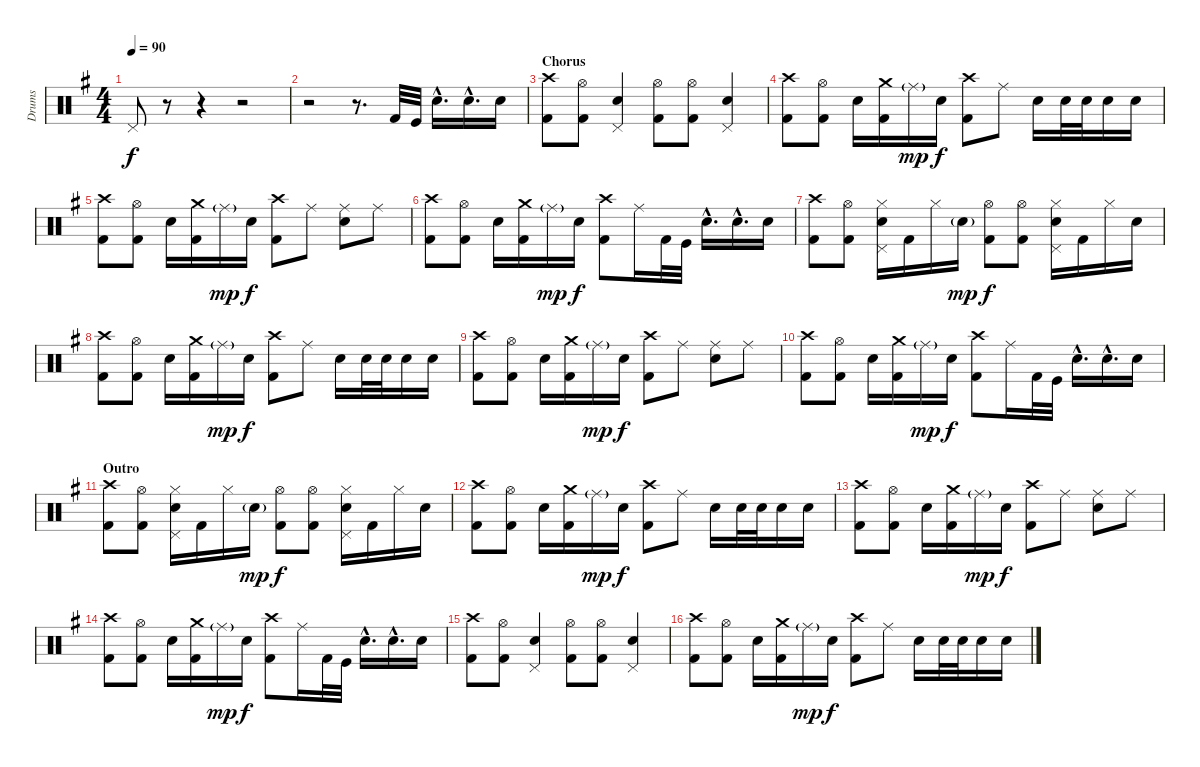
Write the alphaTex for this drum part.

\track ("Drums" "Drums") {instrument percussion}
\staff {score}
\articulation defaults
\ts (4 4)
\tempo 90
\clef neutral
\ks g "Pedal Hi-Hat (hit)".8{dy f}
r.8 r.4 r.2 |
r.2 r.8{d} "Kick (hit) 2".32 "Kick (hit)".32 "Electric Snare (hit)"{hac}.16{d} "Electric Snare (hit)"{hac}.16{d} "Electric Snare (hit)".16 |
\section ("" "Chorus")
("Crash high (hit)" "Kick (hit) 2").8{volume 13} ("Hi-Hat (open)" "Kick (hit) 2").8 ("Electric Snare (hit)" "Pedal Hi-Hat (hit)").4 ("Hi-Hat (open)" "Kick (hit) 2").8 ("Hi-Hat (open)" "Kick (hit) 2").8 ("Electric Snare (hit)" "Pedal Hi-Hat (hit)").4 |
("Crash high (hit)" "Kick (hit) 2").8 ("Hi-Hat (open)" "Kick (hit) 2").8 "Electric Snare (hit)".16 ("Crash medium (hit)" "Kick (hit) 2").16 "Ride (middle)"{g}.16{dy mp} "Electric Snare (hit)".16{dy f} ("Crash high (hit)" "Kick (hit) 2").8 "Ride (middle)".8 "Electric Snare (hit)".16 "Electric Snare (hit)".32 "Electric Snare (hit)".32 "Electric Snare (hit)".16 "Electric Snare (hit)".16 |
("Crash high (hit)" "Kick (hit) 2").8 ("Hi-Hat (open)" "Kick (hit) 2").8 "Electric Snare (hit)".16 ("Crash medium (hit)" "Kick (hit) 2").16 "Ride (middle)"{g}.16{dy mp} "Electric Snare (hit)".16{dy f} ("Crash high (hit)" "Kick (hit) 2").8 "Ride (middle)".8 ("Ride (middle)" "Electric Snare (hit)").8 "Ride (middle)".8 |
("Crash high (hit)" "Kick (hit) 2").8 ("Hi-Hat (open)" "Kick (hit) 2").8 "Electric Snare (hit)".16 ("Crash medium (hit)" "Kick (hit) 2").16 "Ride (middle)"{g}.16{dy mp} "Electric Snare (hit)".16{dy f} ("Crash high (hit)" "Kick (hit) 2").8 "Ride (middle)".16 "Kick (hit) 2".32{volume 16} "Kick (hit)".32 "Electric Snare (hit)"{hac}.16{d} "Electric Snare (hit)"{hac}.16{d} "Electric Snare (hit)".16 |
("Crash high (hit)" "Kick (hit) 2").8{volume 13} ("Hi-Hat (open)" "Kick (hit) 2").8 ("Hi-Hat (closed)" "Electric Snare (hit)" "Pedal Hi-Hat (hit)").16 "Kick (hit) 2".16 "Hi-Hat (closed)".16 "Electric Snare (hit)"{g}.16{dy mp} ("Hi-Hat (open)" "Kick (hit) 2").8{dy f} ("Hi-Hat (open)" "Kick (hit) 2").8 ("Hi-Hat (closed)" "Electric Snare (hit)" "Pedal Hi-Hat (hit)").16 "Kick (hit) 2".16 "Hi-Hat (closed)".16 "Electric Snare (hit)".16 |
("Crash high (hit)" "Kick (hit) 2").8 ("Hi-Hat (open)" "Kick (hit) 2").8 "Electric Snare (hit)".16 ("Crash medium (hit)" "Kick (hit) 2").16 "Ride (middle)"{g}.16{dy mp} "Electric Snare (hit)".16{dy f} ("Crash high (hit)" "Kick (hit) 2").8 "Ride (middle)".8 "Electric Snare (hit)".16 "Electric Snare (hit)".32 "Electric Snare (hit)".32 "Electric Snare (hit)".16 "Electric Snare (hit)".16 |
("Crash high (hit)" "Kick (hit) 2").8 ("Hi-Hat (open)" "Kick (hit) 2").8 "Electric Snare (hit)".16 ("Crash medium (hit)" "Kick (hit) 2").16 "Ride (middle)"{g}.16{dy mp} "Electric Snare (hit)".16{dy f} ("Crash high (hit)" "Kick (hit) 2").8 "Ride (middle)".8 ("Ride (middle)" "Electric Snare (hit)").8 "Ride (middle)".8 |
("Crash high (hit)" "Kick (hit) 2").8 ("Hi-Hat (open)" "Kick (hit) 2").8 "Electric Snare (hit)".16 ("Crash medium (hit)" "Kick (hit) 2").16 "Ride (middle)"{g}.16{dy mp} "Electric Snare (hit)".16{dy f} ("Crash high (hit)" "Kick (hit) 2").8 "Ride (middle)".16 "Kick (hit) 2".32{volume 16} "Kick (hit)".32 "Electric Snare (hit)"{hac}.16{d} "Electric Snare (hit)"{hac}.16{d} "Electric Snare (hit)".16 |
\section ("" "Outro")
("Crash high (hit)" "Kick (hit) 2").8{volume 13} ("Hi-Hat (open)" "Kick (hit) 2").8 ("Hi-Hat (closed)" "Electric Snare (hit)" "Pedal Hi-Hat (hit)").16 "Kick (hit) 2".16 "Hi-Hat (closed)".16 "Electric Snare (hit)"{g}.16{dy mp} ("Hi-Hat (open)" "Kick (hit) 2").8{dy f} ("Hi-Hat (open)" "Kick (hit) 2").8 ("Hi-Hat (closed)" "Electric Snare (hit)" "Pedal Hi-Hat (hit)").16 "Kick (hit) 2".16 "Hi-Hat (closed)".16 "Electric Snare (hit)".16 |
("Crash high (hit)" "Kick (hit) 2").8 ("Hi-Hat (open)" "Kick (hit) 2").8 "Electric Snare (hit)".16 ("Crash medium (hit)" "Kick (hit) 2").16 "Ride (middle)"{g}.16{dy mp} "Electric Snare (hit)".16{dy f} ("Crash high (hit)" "Kick (hit) 2").8 "Ride (middle)".8 "Electric Snare (hit)".16 "Electric Snare (hit)".32 "Electric Snare (hit)".32 "Electric Snare (hit)".16 "Electric Snare (hit)".16 |
("Crash high (hit)" "Kick (hit) 2").8 ("Hi-Hat (open)" "Kick (hit) 2").8 "Electric Snare (hit)".16 ("Crash medium (hit)" "Kick (hit) 2").16 "Ride (middle)"{g}.16{dy mp} "Electric Snare (hit)".16{dy f} ("Crash high (hit)" "Kick (hit) 2").8 "Ride (middle)".8 ("Ride (middle)" "Electric Snare (hit)").8 "Ride (middle)".8 |
("Crash high (hit)" "Kick (hit) 2").8 ("Hi-Hat (open)" "Kick (hit) 2").8 "Electric Snare (hit)".16 ("Crash medium (hit)" "Kick (hit) 2").16 "Ride (middle)"{g}.16{dy mp} "Electric Snare (hit)".16{dy f} ("Crash high (hit)" "Kick (hit) 2").8 "Ride (middle)".16 "Kick (hit) 2".32{volume 16} "Kick (hit)".32 "Electric Snare (hit)"{hac}.16{d} "Electric Snare (hit)"{hac}.16{d} "Electric Snare (hit)".16 |
("Crash high (hit)" "Kick (hit) 2").8{volume 13} ("Hi-Hat (open)" "Kick (hit) 2").8 ("Electric Snare (hit)" "Pedal Hi-Hat (hit)").4 ("Hi-Hat (open)" "Kick (hit) 2").8 ("Hi-Hat (open)" "Kick (hit) 2").8 ("Electric Snare (hit)" "Pedal Hi-Hat (hit)").4 |
("Crash high (hit)" "Kick (hit) 2").8 ("Hi-Hat (open)" "Kick (hit) 2").8 "Electric Snare (hit)".16 ("Crash medium (hit)" "Kick (hit) 2").16 "Ride (middle)"{g}.16{dy mp} "Electric Snare (hit)".16{dy f} ("Crash high (hit)" "Kick (hit) 2").8 "Ride (middle)".8 "Electric Snare (hit)".16 "Electric Snare (hit)".32 "Electric Snare (hit)".32 "Electric Snare (hit)".16 "Electric Snare (hit)".16
